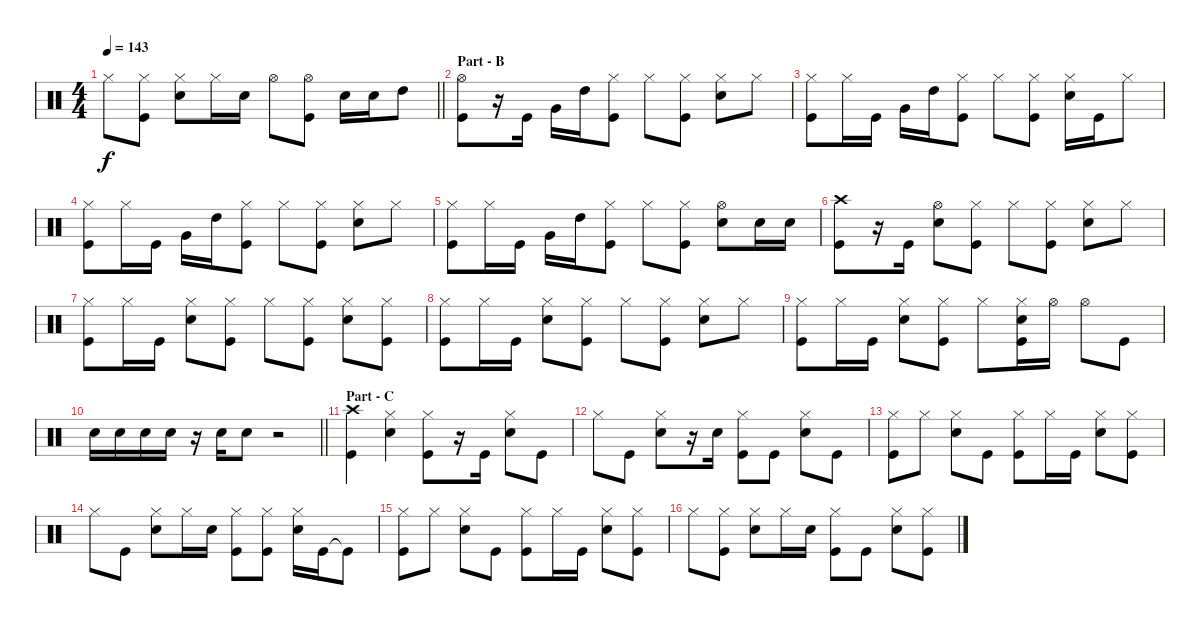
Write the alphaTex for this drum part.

\track "" {instrument percussion}
\staff {score}
\articulation defaults
\ts (4 4)
\tempo 143
\clef neutral
\barLineRight lightlight
\ks c "Hi-Hat (closed)".8{dy f}
("Hi-Hat (closed)" "Kick (hit)").8 ("Hi-Hat (closed)" "Snare (hit) 2").8 "Hi-Hat (closed)".16 "Snare (hit) 2".16 "Hi-Hat (open)".8 ("Hi-Hat (open)" "Kick (hit)").8 "Snare (hit) 2".16 "Snare (hit) 2".16 "High Tom (hit)".8 |
\section ("" "Part - B")
("Hi-Hat (open)" "Kick (hit)").8 r.16 "Kick (hit)".16 "Very Low Tom (hit)".16 "High Tom (hit)".16 ("Hi-Hat (closed)" "Kick (hit)").8 "Hi-Hat (closed)".8 ("Hi-Hat (closed)" "Kick (hit)").8 ("Hi-Hat (closed)" "Snare (hit) 2").8 "Hi-Hat (closed)".8 |
("Hi-Hat (closed)" "Kick (hit)").8 "Hi-Hat (closed)".16 "Kick (hit)".16 "Very Low Tom (hit)".16 "High Tom (hit)".16 ("Hi-Hat (closed)" "Kick (hit)").8 "Hi-Hat (closed)".8 ("Hi-Hat (closed)" "Kick (hit)").8 ("Hi-Hat (closed)" "Snare (hit) 2").16 "Kick (hit)".16 "Hi-Hat (closed)".8 |
("Hi-Hat (closed)" "Kick (hit)").8 "Hi-Hat (closed)".16 "Kick (hit)".16 "Very Low Tom (hit)".16 "High Tom (hit)".16 ("Hi-Hat (closed)" "Kick (hit)").8 "Hi-Hat (closed)".8 ("Hi-Hat (closed)" "Kick (hit)").8 ("Hi-Hat (closed)" "Snare (hit) 2").8 "Hi-Hat (closed)".8 |
("Hi-Hat (closed)" "Kick (hit)").8 "Hi-Hat (closed)".16 "Kick (hit)".16 "Very Low Tom (hit)".16 "High Tom (hit)".16 ("Hi-Hat (closed)" "Kick (hit)").8 "Hi-Hat (closed)".8 ("Hi-Hat (closed)" "Kick (hit)").8 ("Hi-Hat (open)" "Snare (hit) 2").8 "Snare (hit) 2".16 "Snare (hit) 2".16 |
("Crash high (hit)" "Kick (hit)").8 r.16 "Kick (hit)".16 ("Hi-Hat (open)" "Snare (hit) 2").8 ("Hi-Hat (closed)" "Kick (hit)").8 "Hi-Hat (closed)".8 ("Hi-Hat (closed)" "Kick (hit)").8 ("Hi-Hat (closed)" "Snare (hit) 2").8 "Hi-Hat (closed)".8 |
("Hi-Hat (closed)" "Kick (hit)").8 "Hi-Hat (closed)".16 "Kick (hit)".16 ("Hi-Hat (closed)" "Snare (hit) 2").8 ("Hi-Hat (closed)" "Kick (hit)").8 "Hi-Hat (closed)".8 ("Hi-Hat (closed)" "Kick (hit)").8 ("Hi-Hat (closed)" "Snare (hit) 2").8 ("Hi-Hat (closed)" "Kick (hit)").8 |
("Hi-Hat (closed)" "Kick (hit)").8 "Hi-Hat (closed)".16 "Kick (hit)".16 ("Hi-Hat (closed)" "Snare (hit) 2").8 ("Hi-Hat (closed)" "Kick (hit)").8 "Hi-Hat (closed)".8 ("Hi-Hat (closed)" "Kick (hit)").8 ("Hi-Hat (closed)" "Snare (hit) 2").8 "Hi-Hat (closed)".8 |
("Hi-Hat (closed)" "Kick (hit)").8 "Hi-Hat (closed)".16 "Kick (hit)".16 ("Hi-Hat (closed)" "Snare (hit) 2").8 ("Hi-Hat (closed)" "Kick (hit)").8 "Hi-Hat (closed)".8 ("Hi-Hat (closed)" "Snare (hit) 2" "Kick (hit)").16 "Hi-Hat (open)".16 "Hi-Hat (open)".8 "Kick (hit)".8 |
\barLineRight lightlight "Snare (hit) 2".16 "Snare (hit) 2".16 "Snare (hit) 2".16 "Snare (hit) 2".16
r.16 "Snare (hit) 2".16 "Snare (hit) 2".8 r.2 |
\section ("" "Part - C")
("Crash high (hit)" "Kick (hit)").4 ("Hi-Hat (closed)" "Snare (hit) 2").4 ("Hi-Hat (closed)" "Kick (hit)").8 r.16 "Kick (hit)".16 ("Hi-Hat (closed)" "Snare (hit) 2").8 "Kick (hit)".8 |
"Hi-Hat (closed)".8 "Kick (hit)".8 ("Hi-Hat (closed)" "Snare (hit) 2").8 r.16 "Snare (hit) 2".16 ("Hi-Hat (closed)" "Kick (hit)").8 "Kick (hit)".8 ("Hi-Hat (closed)" "Snare (hit) 2").8 "Kick (hit)".8 |
("Hi-Hat (closed)" "Kick (hit)").8 "Hi-Hat (closed)".8 ("Hi-Hat (closed)" "Snare (hit) 2").8 "Kick (hit)".8 ("Hi-Hat (closed)" "Kick (hit)").8 "Hi-Hat (closed)".16 "Kick (hit)".16 ("Hi-Hat (closed)" "Snare (hit) 2").8 ("Hi-Hat (closed)" "Kick (hit)").8 |
"Hi-Hat (closed)".8 "Kick (hit)".8 ("Hi-Hat (closed)" "Snare (hit) 2").8 "Hi-Hat (closed)".16 "Snare (hit) 2".16 ("Hi-Hat (closed)" "Kick (hit)").8 ("Hi-Hat (closed)" "Kick (hit)").8 ("Hi-Hat (closed)" "Snare (hit) 2").16 "Kick (hit)".16 "Kick (hit)"{t}.8 |
("Hi-Hat (closed)" "Kick (hit)").8 "Hi-Hat (closed)".8 ("Hi-Hat (closed)" "Snare (hit) 2").8 "Kick (hit)".8 ("Hi-Hat (closed)" "Kick (hit)").8 "Hi-Hat (closed)".16 "Kick (hit)".16 ("Hi-Hat (closed)" "Snare (hit) 2").8 ("Hi-Hat (closed)" "Kick (hit)").8 |
"Hi-Hat (closed)".8 ("Hi-Hat (closed)" "Kick (hit)").8 ("Hi-Hat (closed)" "Snare (hit) 2").8 "Hi-Hat (closed)".16 "Snare (hit) 2".16 ("Hi-Hat (closed)" "Kick (hit)").8 "Kick (hit)".8 ("Hi-Hat (closed)" "Snare (hit) 2").8 ("Hi-Hat (closed)" "Kick (hit)").8
